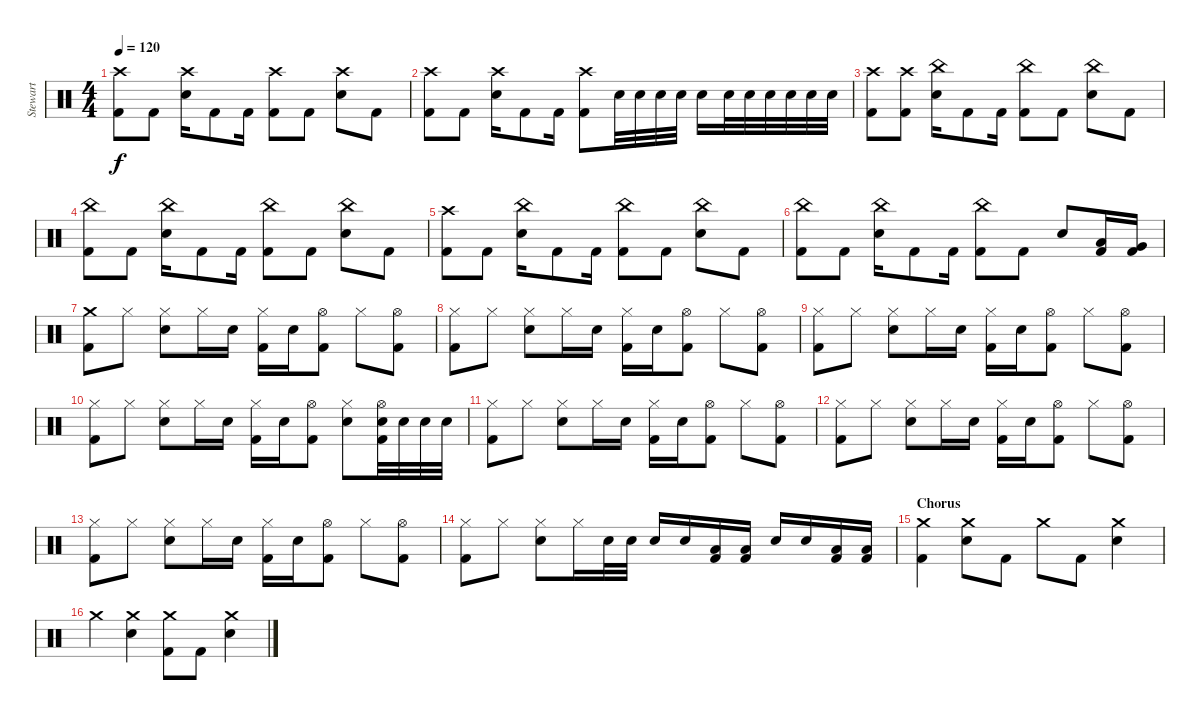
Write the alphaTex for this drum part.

\track ("Stewart" "Stewart") {instrument percussion}
\staff {score}
\articulation defaults
\ts (4 4)
\tempo 120
\clef neutral
\ks c
("Kick (hit) 2" "Crash high (hit)").8{dy f} "Kick (hit) 2".8 ("Electric Snare (hit)" "Crash high (hit)").16 "Kick (hit) 2".8 "Kick (hit) 2".16 ("Kick (hit) 2" "Crash high (hit)").8 "Kick (hit) 2".8 ("Electric Snare (hit)" "Crash high (hit)").8 "Kick (hit) 2".8 |
("Kick (hit) 2" "Crash high (hit)").8 "Kick (hit) 2".8 ("Electric Snare (hit)" "Crash high (hit)").16 "Kick (hit) 2".8 "Kick (hit) 2".16 ("Crash high (hit)" "Kick (hit) 2").8 "Electric Snare (hit)".32 "Electric Snare (hit)".32 "Electric Snare (hit)".32 "Electric Snare (hit)".32 "Electric Snare (hit)".16 "Electric Snare (hit)".32 "Electric Snare (hit)".32 "Electric Snare (hit)".32 "Electric Snare (hit)".32 "Electric Snare (hit)".32 "Electric Snare (hit)".32 |
("Kick (hit) 2" "Crash high (hit)").8 ("Kick (hit) 2" "Crash high (hit)").8 ("Electric Snare (hit)" "China (hit)").16 "Kick (hit) 2".8 "Kick (hit) 2".16 ("Kick (hit) 2" "China (hit)").8 "Kick (hit) 2".8 ("Electric Snare (hit)" "China (hit)").8 "Kick (hit) 2".8 |
("Kick (hit) 2" "China (hit)").8 "Kick (hit) 2".8 ("Electric Snare (hit)" "China (hit)").16 "Kick (hit) 2".8 "Kick (hit) 2".16 ("Kick (hit) 2" "China (hit)").8 "Kick (hit) 2".8 ("Electric Snare (hit)" "China (hit)").8 "Kick (hit) 2".8 |
("Kick (hit) 2" "Crash high (hit)").8 "Kick (hit) 2".8 ("Electric Snare (hit)" "China (hit)").16 "Kick (hit) 2".8 "Kick (hit) 2".16 ("Kick (hit) 2" "China (hit)").8 "Kick (hit) 2".8 ("Electric Snare (hit)" "China (hit)").8 "Kick (hit) 2".8 |
("Kick (hit) 2" "China (hit)").8 "Kick (hit) 2".8 ("Electric Snare (hit)" "China (hit)").16 "Kick (hit) 2".8 "Kick (hit) 2".16 ("Kick (hit) 2" "China (hit)").8 "Kick (hit) 2".8 "Electric Snare (hit)".8 ("Low Tom (hit)" "Kick (hit) 2").16 ("Very Low Tom (hit)" "Kick (hit) 2").16 |
("Crash medium (hit)" "Kick (hit) 2").8 "Hi-Hat (closed)".8 ("Hi-Hat (closed)" "Electric Snare (hit)").8 "Hi-Hat (closed)".16 "Electric Snare (hit)".16 ("Hi-Hat (closed)" "Kick (hit) 2").16 "Electric Snare (hit)".16 ("Hi-Hat (open)" "Kick (hit) 2").8 "Hi-Hat (closed)".8 ("Hi-Hat (open)" "Kick (hit) 2").8 |
("Hi-Hat (closed)" "Kick (hit) 2").8 "Hi-Hat (closed)".8 ("Hi-Hat (closed)" "Electric Snare (hit)").8 "Hi-Hat (closed)".16 "Electric Snare (hit)".16 ("Hi-Hat (closed)" "Kick (hit) 2").16 "Electric Snare (hit)".16 ("Hi-Hat (open)" "Kick (hit) 2").8 "Hi-Hat (closed)".8 ("Hi-Hat (open)" "Kick (hit) 2").8 |
("Hi-Hat (closed)" "Kick (hit) 2").8 "Hi-Hat (closed)".8 ("Hi-Hat (closed)" "Electric Snare (hit)").8 "Hi-Hat (closed)".16 "Electric Snare (hit)".16 ("Hi-Hat (closed)" "Kick (hit) 2").16 "Electric Snare (hit)".16 ("Hi-Hat (open)" "Kick (hit) 2").8 "Hi-Hat (closed)".8 ("Hi-Hat (open)" "Kick (hit) 2").8 |
("Hi-Hat (closed)" "Kick (hit) 2").8 "Hi-Hat (closed)".8 ("Hi-Hat (closed)" "Electric Snare (hit)").8 "Hi-Hat (closed)".16 "Electric Snare (hit)".16 ("Hi-Hat (closed)" "Kick (hit) 2").16 "Electric Snare (hit)".16 ("Hi-Hat (open)" "Kick (hit) 2").8 ("Hi-Hat (closed)" "Electric Snare (hit)").8 ("Hi-Hat (open)" "Electric Snare (hit)" "Kick (hit) 2").32 "Electric Snare (hit)".32 "Electric Snare (hit)".32 "Electric Snare (hit)".32 |
("Hi-Hat (closed)" "Kick (hit) 2").8 "Hi-Hat (closed)".8 ("Hi-Hat (closed)" "Electric Snare (hit)").8 "Hi-Hat (closed)".16 "Electric Snare (hit)".16 ("Hi-Hat (closed)" "Kick (hit) 2").16 "Electric Snare (hit)".16 ("Hi-Hat (open)" "Kick (hit) 2").8 "Hi-Hat (closed)".8 ("Hi-Hat (open)" "Kick (hit) 2").8 |
("Hi-Hat (closed)" "Kick (hit) 2").8 "Hi-Hat (closed)".8 ("Hi-Hat (closed)" "Electric Snare (hit)").8 "Hi-Hat (closed)".16 "Electric Snare (hit)".16 ("Hi-Hat (closed)" "Kick (hit) 2").16 "Electric Snare (hit)".16 ("Hi-Hat (open)" "Kick (hit) 2").8 "Hi-Hat (closed)".8 ("Hi-Hat (open)" "Kick (hit) 2").8 |
("Hi-Hat (closed)" "Kick (hit) 2").8 "Hi-Hat (closed)".8 ("Hi-Hat (closed)" "Electric Snare (hit)").8 "Hi-Hat (closed)".16 "Electric Snare (hit)".16 ("Hi-Hat (closed)" "Kick (hit) 2").16 "Electric Snare (hit)".16 ("Hi-Hat (open)" "Kick (hit) 2").8 "Hi-Hat (closed)".8 ("Hi-Hat (open)" "Kick (hit) 2").8 |
("Hi-Hat (closed)" "Kick (hit) 2").8 "Hi-Hat (closed)".8 ("Hi-Hat (closed)" "Electric Snare (hit)").8 "Hi-Hat (closed)".16 "Electric Snare (hit)".32 "Electric Snare (hit)".32 "Electric Snare (hit)".16 "Electric Snare (hit)".16 ("Low Tom (hit)" "Kick (hit) 2").16 ("Low Tom (hit)" "Kick (hit) 2").16 "Electric Snare (hit)".16 "Electric Snare (hit)".16 ("Low Tom (hit)" "Kick (hit) 2").16 ("Low Tom (hit)" "Kick (hit) 2").16 |
\section ("" "Chorus")
("Crash medium (hit)" "Kick (hit) 2").4 ("Crash medium (hit)" "Electric Snare (hit)").8 "Kick (hit) 2".8 "Crash medium (hit)".8 "Kick (hit) 2".8 ("Crash medium (hit)" "Electric Snare (hit)").4 |
"Crash medium (hit)".4 ("Crash medium (hit)" "Electric Snare (hit)").4 ("Crash medium (hit)" "Kick (hit) 2").8 "Kick (hit) 2".8 ("Crash medium (hit)" "Electric Snare (hit)").4
